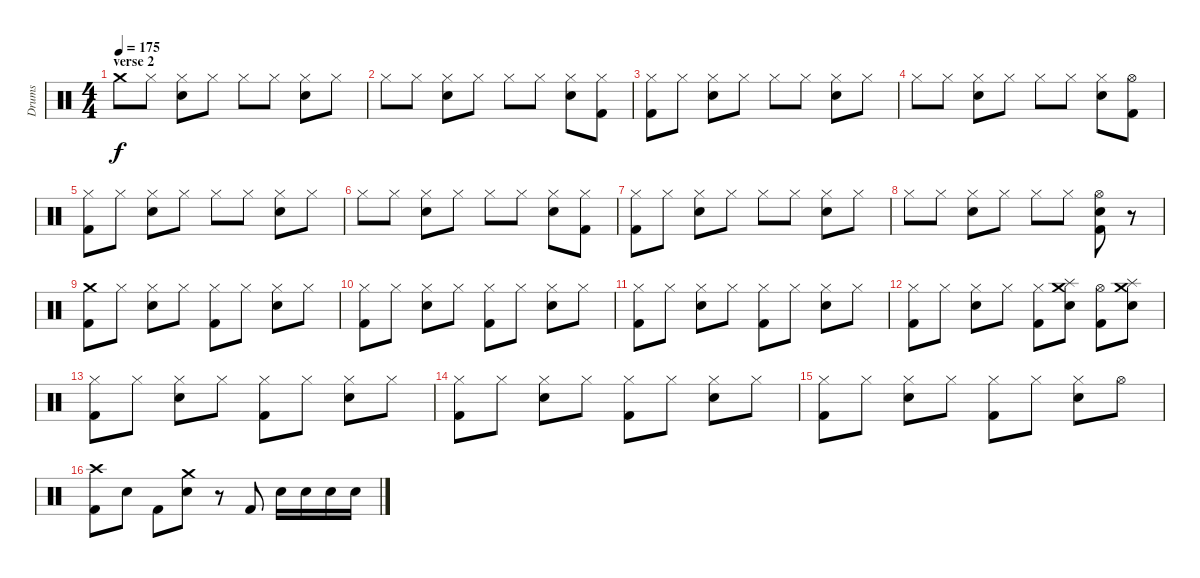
\track ("Drums" "Drums") {instrument percussion}
\staff {score}
\articulation defaults
\ts (4 4)
\section ("" "verse 2")
\tempo 175
\clef neutral
\ks c "Crash medium (hit)".8{dy f} "Hi-Hat (closed)".8
("Hi-Hat (closed)" "Snare (hit) 2").8 "Hi-Hat (closed)".8 "Hi-Hat (closed)".8 "Hi-Hat (closed)".8 ("Hi-Hat (closed)" "Snare (hit) 2").8 "Hi-Hat (closed)".8 |
"Hi-Hat (closed)".8 "Hi-Hat (closed)".8 ("Hi-Hat (closed)" "Snare (hit) 2").8 "Hi-Hat (closed)".8 "Hi-Hat (closed)".8 "Hi-Hat (closed)".8 ("Hi-Hat (closed)" "Snare (hit) 2").8 ("Hi-Hat (closed)" "Kick (hit) 2").8 |
("Hi-Hat (closed)" "Kick (hit) 2").8 "Hi-Hat (closed)".8 ("Hi-Hat (closed)" "Snare (hit) 2").8 "Hi-Hat (closed)".8 "Hi-Hat (closed)".8 "Hi-Hat (closed)".8 ("Hi-Hat (closed)" "Snare (hit) 2").8 "Hi-Hat (closed)".8 |
"Hi-Hat (closed)".8 "Hi-Hat (closed)".8 ("Hi-Hat (closed)" "Snare (hit) 2").8 "Hi-Hat (closed)".8 "Hi-Hat (closed)".8 "Hi-Hat (closed)".8 ("Hi-Hat (closed)" "Snare (hit) 2").8 ("Hi-Hat (open)" "Kick (hit) 2").8 |
("Hi-Hat (closed)" "Kick (hit) 2").8 "Hi-Hat (closed)".8 ("Hi-Hat (closed)" "Snare (hit) 2").8 "Hi-Hat (closed)".8 "Hi-Hat (closed)".8 "Hi-Hat (closed)".8 ("Hi-Hat (closed)" "Snare (hit) 2").8 "Hi-Hat (closed)".8 |
"Hi-Hat (closed)".8 "Hi-Hat (closed)".8 ("Hi-Hat (closed)" "Snare (hit) 2").8 "Hi-Hat (closed)".8 "Hi-Hat (closed)".8 "Hi-Hat (closed)".8 ("Hi-Hat (closed)" "Snare (hit) 2").8 ("Hi-Hat (closed)" "Kick (hit) 2").8 |
("Hi-Hat (closed)" "Kick (hit) 2").8 "Hi-Hat (closed)".8 ("Hi-Hat (closed)" "Snare (hit) 2").8 "Hi-Hat (closed)".8 "Hi-Hat (closed)".8 "Hi-Hat (closed)".8 ("Hi-Hat (closed)" "Snare (hit) 2").8 "Hi-Hat (closed)".8 |
"Hi-Hat (closed)".8 "Hi-Hat (closed)".8 ("Hi-Hat (closed)" "Snare (hit) 2").8 "Hi-Hat (closed)".8 "Hi-Hat (closed)".8 "Hi-Hat (closed)".8 ("Hi-Hat (open)" "Snare (hit) 2" "Kick (hit) 2").8 r.8 |
("Crash medium (hit)" "Kick (hit) 2").8 "Hi-Hat (closed)".8 ("Hi-Hat (closed)" "Snare (hit) 2").8 "Hi-Hat (closed)".8 ("Hi-Hat (closed)" "Kick (hit) 2").8 "Hi-Hat (closed)".8 ("Hi-Hat (closed)" "Snare (hit) 2").8 "Hi-Hat (closed)".8 |
("Hi-Hat (closed)" "Kick (hit) 2").8 "Hi-Hat (closed)".8 ("Hi-Hat (closed)" "Snare (hit) 2").8 "Hi-Hat (closed)".8 ("Hi-Hat (closed)" "Kick (hit) 2").8 "Hi-Hat (closed)".8 ("Hi-Hat (closed)" "Snare (hit) 2").8 "Hi-Hat (closed)".8 |
("Hi-Hat (closed)" "Kick (hit) 2").8 "Hi-Hat (closed)".8 ("Hi-Hat (closed)" "Snare (hit) 2").8 "Hi-Hat (closed)".8 ("Hi-Hat (closed)" "Kick (hit) 2").8 "Hi-Hat (closed)".8 ("Hi-Hat (closed)" "Snare (hit) 2").8 "Hi-Hat (closed)".8 |
("Hi-Hat (closed)" "Kick (hit) 2").8 "Hi-Hat (closed)".8 ("Hi-Hat (closed)" "Snare (hit) 2").8 "Hi-Hat (closed)".8 ("Hi-Hat (closed)" "Kick (hit) 2").8 ("Crash medium (hit)" "Splash (hit)" "Snare (hit) 2").8 ("Hi-Hat (open)" "Kick (hit) 2").8 ("Crash medium (hit)" "Splash (hit)" "Snare (hit) 2").8 |
("Hi-Hat (closed)" "Kick (hit) 2").8 "Hi-Hat (closed)".8 ("Hi-Hat (closed)" "Snare (hit) 2").8 "Hi-Hat (closed)".8 ("Hi-Hat (closed)" "Kick (hit) 2").8 "Hi-Hat (closed)".8 ("Hi-Hat (closed)" "Snare (hit) 2").8 "Hi-Hat (closed)".8 |
("Hi-Hat (closed)" "Kick (hit) 2").8 "Hi-Hat (closed)".8 ("Hi-Hat (closed)" "Snare (hit) 2").8 "Hi-Hat (closed)".8 ("Hi-Hat (closed)" "Kick (hit) 2").8 "Hi-Hat (closed)".8 ("Hi-Hat (closed)" "Snare (hit) 2").8 "Hi-Hat (closed)".8 |
("Hi-Hat (closed)" "Kick (hit) 2").8 "Hi-Hat (closed)".8 ("Hi-Hat (closed)" "Snare (hit) 2").8 "Hi-Hat (closed)".8 ("Hi-Hat (closed)" "Kick (hit) 2").8 "Hi-Hat (closed)".8 ("Hi-Hat (closed)" "Snare (hit) 2").8 "Hi-Hat (open)".8 |
("Crash high (hit)" "Kick (hit) 2").8 "Snare (hit) 2".8 "Kick (hit) 2".8 ("Crash medium (hit)" "Snare (hit) 2").8 r.8 "Kick (hit) 2".8 "Snare (hit) 2".16 "Snare (hit) 2".16 "Snare (hit) 2".16 "Snare (hit) 2".16
